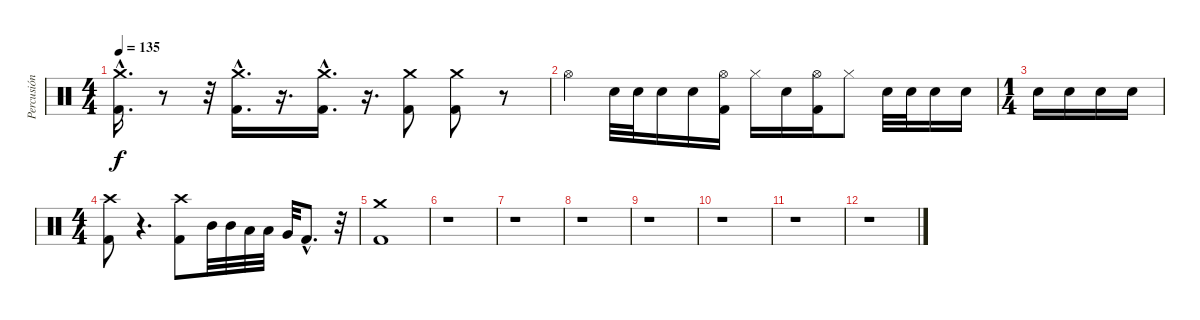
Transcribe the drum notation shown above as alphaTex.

\track ("Percusión" "Percusión") {instrument percussion}
\staff {score}
\articulation defaults
\ts (4 4)
\tempo 135
\clef neutral
\ks c
("Crash medium (hit)"{hac} "Kick (hit) 2"{hac}).16{d dy f} r.8 r.32 ("Crash medium (hit)"{hac} "Kick (hit) 2"{hac}).16{d} r.16{d} ("Crash medium (hit)"{hac} "Kick (hit) 2"{hac}).16{d} r.16{d} ("Crash medium (hit)" "Kick (hit) 2").8 ("Crash medium (hit)" "Kick (hit) 2").8 r.8 |
"Hi-Hat (open)".4 "Electric Snare (hit)".32 "Electric Snare (hit)".32 "Electric Snare (hit)".16 "Electric Snare (hit)".16 ("Hi-Hat (open)" "Kick (hit) 2").16 "Hi-Hat (closed)".16 "Electric Snare (hit)".16 ("Hi-Hat (open)" "Kick (hit) 2").16 "Hi-Hat (closed)".8 "Electric Snare (hit)".32 "Electric Snare (hit)".32 "Electric Snare (hit)".16 "Electric Snare (hit)".16 |
\ts (1 4)
"Electric Snare (hit)".16 "Electric Snare (hit)".16 "Electric Snare (hit)".16 "Electric Snare (hit)".16 |
\ts (4 4)
("Crash high (hit)" "Kick (hit) 2").8 r.4{d} ("Crash high (hit)" "Kick (hit) 2").8 "Mid Tom (hit)".32 "Mid Tom (hit)".32 "Low Tom (hit)".32 "Low Tom (hit)".32 "Very Low Tom (hit)".32 "Kick (hit) 2"{hac}.8{d} r.32 |
("Crash medium (hit)" "Kick (hit) 2").1 |
r.1 |
r.1 |
r.1 |
r.1 |
r.1 |
r.1 |
r.1
